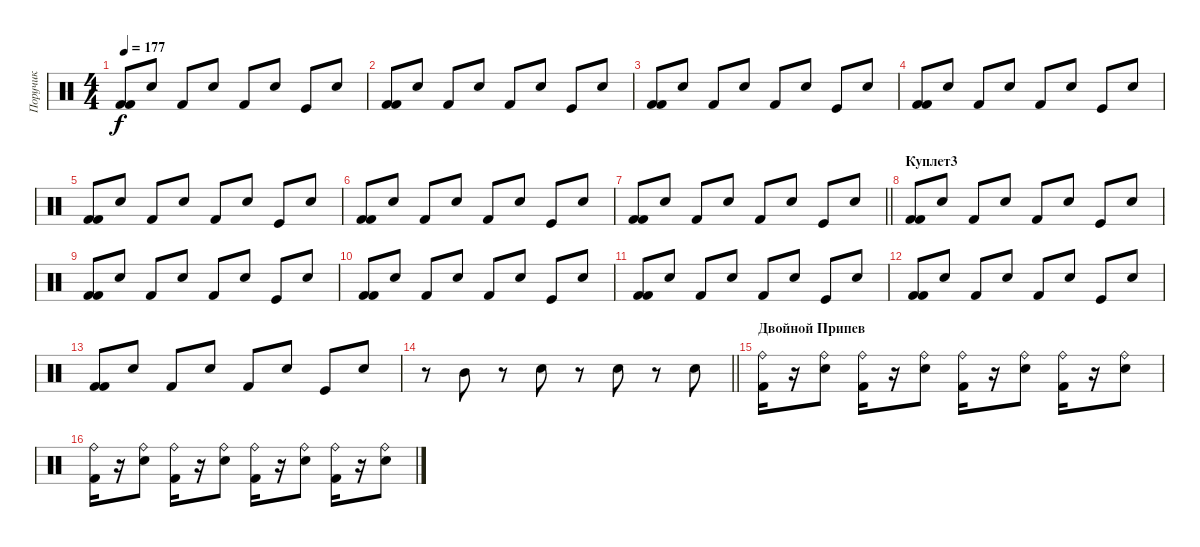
\track ("Поручик" "Поручик") {instrument percussion}
\staff {score}
\articulation defaults
\ts (4 4)
\tempo 177
\clef neutral
\ks c
("Kick (hit) 2" "Kick (hit) 2").8{dy f} "Snare (hit) 2".8 "Kick (hit) 2".8 "Snare (hit) 2".8 "Kick (hit) 2".8 "Snare (hit) 2".8 "Kick (hit)".8 "Snare (hit) 2".8 |
("Kick (hit) 2" "Kick (hit) 2").8 "Snare (hit) 2".8 "Kick (hit) 2".8 "Snare (hit) 2".8 "Kick (hit) 2".8 "Snare (hit) 2".8 "Kick (hit)".8 "Snare (hit) 2".8 |
("Kick (hit) 2" "Kick (hit) 2").8 "Snare (hit) 2".8 "Kick (hit) 2".8 "Snare (hit) 2".8 "Kick (hit) 2".8 "Snare (hit) 2".8 "Kick (hit)".8 "Snare (hit) 2".8 |
("Kick (hit) 2" "Kick (hit) 2").8 "Snare (hit) 2".8 "Kick (hit) 2".8 "Snare (hit) 2".8 "Kick (hit) 2".8 "Snare (hit) 2".8 "Kick (hit)".8 "Snare (hit) 2".8 |
("Kick (hit) 2" "Kick (hit) 2").8 "Snare (hit) 2".8 "Kick (hit) 2".8 "Snare (hit) 2".8 "Kick (hit) 2".8 "Snare (hit) 2".8 "Kick (hit)".8 "Snare (hit) 2".8 |
("Kick (hit) 2" "Kick (hit) 2").8 "Snare (hit) 2".8 "Kick (hit) 2".8 "Snare (hit) 2".8 "Kick (hit) 2".8 "Snare (hit) 2".8 "Kick (hit)".8 "Snare (hit) 2".8 |
\barLineRight lightlight
("Kick (hit) 2" "Kick (hit) 2").8 "Snare (hit) 2".8 "Kick (hit) 2".8 "Snare (hit) 2".8 "Kick (hit) 2".8 "Snare (hit) 2".8 "Kick (hit)".8 "Snare (hit) 2".8 |
\section ("" "Куплет3")
("Kick (hit) 2" "Kick (hit) 2").8 "Snare (hit) 2".8 "Kick (hit) 2".8 "Snare (hit) 2".8 "Kick (hit) 2".8 "Snare (hit) 2".8 "Kick (hit)".8 "Snare (hit) 2".8 |
("Kick (hit) 2" "Kick (hit) 2").8 "Snare (hit) 2".8 "Kick (hit) 2".8 "Snare (hit) 2".8 "Kick (hit) 2".8 "Snare (hit) 2".8 "Kick (hit)".8 "Snare (hit) 2".8 |
("Kick (hit) 2" "Kick (hit) 2").8 "Snare (hit) 2".8 "Kick (hit) 2".8 "Snare (hit) 2".8 "Kick (hit) 2".8 "Snare (hit) 2".8 "Kick (hit)".8 "Snare (hit) 2".8 |
("Kick (hit) 2" "Kick (hit) 2").8 "Snare (hit) 2".8 "Kick (hit) 2".8 "Snare (hit) 2".8 "Kick (hit) 2".8 "Snare (hit) 2".8 "Kick (hit)".8 "Snare (hit) 2".8 |
("Kick (hit) 2" "Kick (hit) 2").8 "Snare (hit) 2".8 "Kick (hit) 2".8 "Snare (hit) 2".8 "Kick (hit) 2".8 "Snare (hit) 2".8 "Kick (hit)".8 "Snare (hit) 2".8 |
("Kick (hit) 2" "Kick (hit) 2").8 "Snare (hit) 2".8 "Kick (hit) 2".8 "Snare (hit) 2".8 "Kick (hit) 2".8 "Snare (hit) 2".8 "Kick (hit)".8 "Snare (hit) 2".8 |
\barLineRight lightlight
r.8 "Mid Tom (hit)".8 r.8 "Snare (hit) 2".8 r.8 "Snare (hit) 2".8 r.8 "Snare (hit) 2".8 |
\section ("" "Двойной Припев")
("Ride (bell)" "Kick (hit) 2").16 r.16 ("Ride (bell)" "Snare (hit) 2").8 ("Ride (bell)" "Kick (hit) 2").16 r.16 ("Ride (bell)" "Snare (hit) 2").8 ("Ride (bell)" "Kick (hit) 2").16 r.16 ("Ride (bell)" "Snare (hit) 2").8 ("Ride (bell)" "Kick (hit) 2").16 r.16 ("Ride (bell)" "Snare (hit) 2").8 |
("Ride (bell)" "Kick (hit) 2").16 r.16 ("Ride (bell)" "Snare (hit) 2").8 ("Ride (bell)" "Kick (hit) 2").16 r.16 ("Ride (bell)" "Snare (hit) 2").8 ("Ride (bell)" "Kick (hit) 2").16 r.16 ("Ride (bell)" "Snare (hit) 2").8 ("Ride (bell)" "Kick (hit) 2").16 r.16 ("Ride (bell)" "Snare (hit) 2").8
